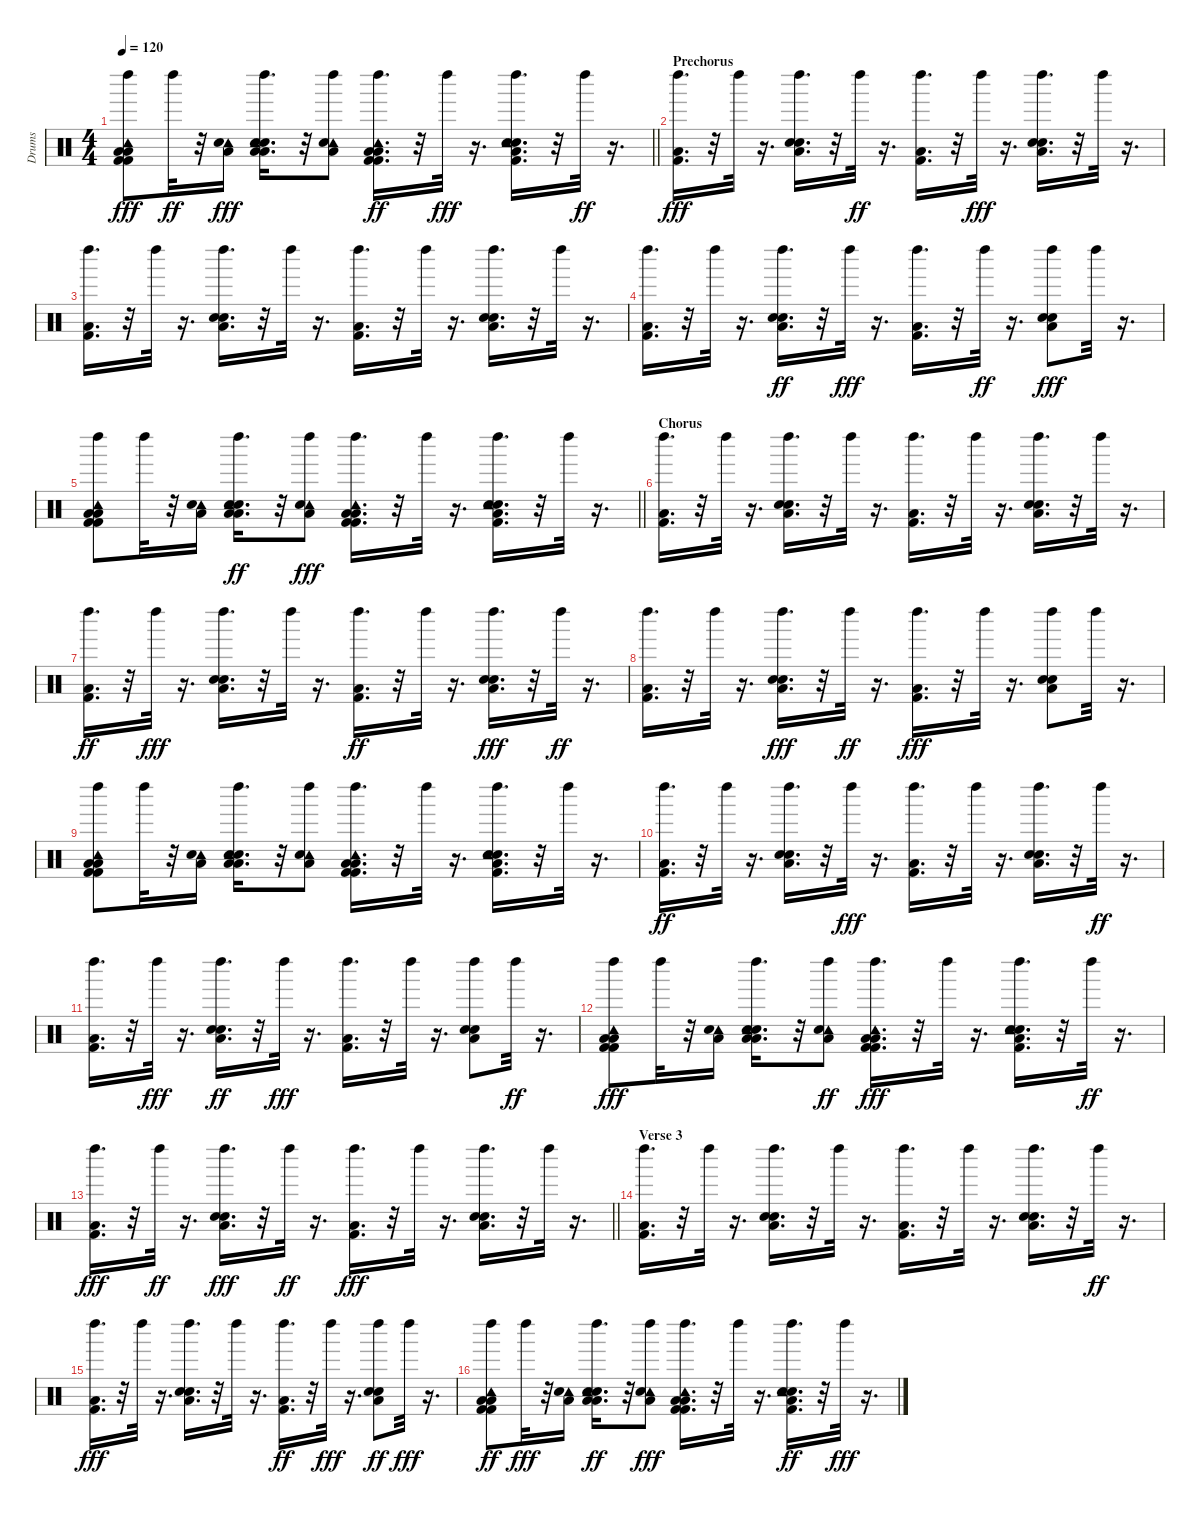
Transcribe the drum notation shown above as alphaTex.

\track ("Drums" "Drums") {instrument percussion}
\staff {score}
\articulation defaults
\ts (4 4)
\tempo 120
\clef neutral
\barLineRight lightlight
\ks c
("Left Maraca (hit)" "Low Floor Tom (hit)" "Kick (hit) 2" "Tambourine (hit)" "Low Floor Tom (hit)" "Kick (hit) 2").8{dy fff} "Left Maraca (hit)".32{dy ff} r.32 ("Tambourine (hit)" "Low Floor Tom (hit)" "Snare (hit) 2").16{dy fff} ("Left Maraca (hit)" "Electric Snare (hit)" "Low Floor Tom (hit)" "Snare (hit) 2" "Tambourine (hit)" "Low Floor Tom (hit)").16{d} r.32 ("Left Maraca (hit)" "Tambourine (hit)" "Low Floor Tom (hit)" "Snare (hit) 2").8 ("Left Maraca (hit)" "Low Floor Tom (hit)" "Kick (hit) 2" "Tambourine (hit)" "Low Floor Tom (hit)" "Kick (hit) 2").16{d dy ff} r.32 "Left Maraca (hit)".32{dy fff} r.16{d} ("Left Maraca (hit)" "Electric Snare (hit)" "Low Floor Tom (hit)" "Snare (hit) 2" "Tambourine (hit)" "Kick (hit) 2").16{d} r.32 "Left Maraca (hit)".32{dy ff} r.16{d} |
\section ("" "Prechorus")
("Left Maraca (hit)" "Low Floor Tom (hit)" "Kick (hit) 2").16{d dy fff} r.32 "Left Maraca (hit)".32 r.16{d} ("Left Maraca (hit)" "Electric Snare (hit)" "Low Floor Tom (hit)" "Snare (hit) 2").16{d} r.32 "Left Maraca (hit)".32{dy ff} r.16{d} ("Left Maraca (hit)" "Low Floor Tom (hit)" "Kick (hit) 2").16{d} r.32 "Left Maraca (hit)".32{dy fff} r.16{d} ("Left Maraca (hit)" "Electric Snare (hit)" "Low Floor Tom (hit)" "Snare (hit) 2").16{d} r.32 "Left Maraca (hit)".32 r.16{d} |
("Left Maraca (hit)" "Low Floor Tom (hit)" "Kick (hit) 2").16{d} r.32 "Left Maraca (hit)".32 r.16{d} ("Left Maraca (hit)" "Electric Snare (hit)" "Low Floor Tom (hit)" "Snare (hit) 2").16{d} r.32 "Left Maraca (hit)".32 r.16{d} ("Left Maraca (hit)" "Low Floor Tom (hit)" "Kick (hit) 2").16{d} r.32 "Left Maraca (hit)".32 r.16{d} ("Left Maraca (hit)" "Electric Snare (hit)" "Low Floor Tom (hit)" "Snare (hit) 2").16{d} r.32 "Left Maraca (hit)".32 r.16{d} |
("Left Maraca (hit)" "Low Floor Tom (hit)" "Kick (hit) 2").16{d} r.32 "Left Maraca (hit)".32 r.16{d} ("Left Maraca (hit)" "Electric Snare (hit)" "Low Floor Tom (hit)" "Snare (hit) 2").16{d dy ff} r.32 "Left Maraca (hit)".32{dy fff} r.16{d} ("Left Maraca (hit)" "Low Floor Tom (hit)" "Kick (hit) 2").16{d} r.32 "Left Maraca (hit)".32{dy ff} r.16{d} ("Left Maraca (hit)" "Electric Snare (hit)" "Low Floor Tom (hit)" "Snare (hit) 2").8{dy fff} "Left Maraca (hit)".32 r.16{d} |
\barLineRight lightlight
("Left Maraca (hit)" "Low Floor Tom (hit)" "Kick (hit) 2" "Tambourine (hit)" "Low Floor Tom (hit)" "Kick (hit) 2").8 "Left Maraca (hit)".32 r.32 ("Tambourine (hit)" "Low Floor Tom (hit)" "Snare (hit) 2").16 ("Left Maraca (hit)" "Electric Snare (hit)" "Low Floor Tom (hit)" "Snare (hit) 2" "Tambourine (hit)" "Low Floor Tom (hit)").16{d dy ff} r.32 ("Left Maraca (hit)" "Tambourine (hit)" "Low Floor Tom (hit)" "Snare (hit) 2").8{dy fff} ("Left Maraca (hit)" "Low Floor Tom (hit)" "Kick (hit) 2" "Tambourine (hit)" "Low Floor Tom (hit)" "Kick (hit) 2").16{d} r.32 "Left Maraca (hit)".32 r.16{d} ("Left Maraca (hit)" "Electric Snare (hit)" "Low Floor Tom (hit)" "Snare (hit) 2" "Tambourine (hit)" "Kick (hit) 2").16{d} r.32 "Left Maraca (hit)".32 r.16{d} |
\section ("" "Chorus")
("Left Maraca (hit)" "Low Floor Tom (hit)" "Kick (hit) 2").16{d} r.32 "Left Maraca (hit)".32 r.16{d} ("Left Maraca (hit)" "Electric Snare (hit)" "Low Floor Tom (hit)" "Snare (hit) 2").16{d} r.32 "Left Maraca (hit)".32 r.16{d} ("Left Maraca (hit)" "Low Floor Tom (hit)" "Kick (hit) 2").16{d} r.32 "Left Maraca (hit)".32 r.16{d} ("Left Maraca (hit)" "Electric Snare (hit)" "Low Floor Tom (hit)" "Snare (hit) 2").16{d} r.32 "Left Maraca (hit)".32 r.16{d} |
("Left Maraca (hit)" "Low Floor Tom (hit)" "Kick (hit) 2").16{d dy ff} r.32 "Left Maraca (hit)".32{dy fff} r.16{d} ("Left Maraca (hit)" "Electric Snare (hit)" "Low Floor Tom (hit)" "Snare (hit) 2").16{d} r.32 "Left Maraca (hit)".32 r.16{d} ("Left Maraca (hit)" "Low Floor Tom (hit)" "Kick (hit) 2").16{d dy ff} r.32 "Left Maraca (hit)".32 r.16{d} ("Left Maraca (hit)" "Electric Snare (hit)" "Low Floor Tom (hit)" "Snare (hit) 2").16{d dy fff} r.32 "Left Maraca (hit)".32{dy ff} r.16{d} |
("Left Maraca (hit)" "Low Floor Tom (hit)" "Kick (hit) 2").16{d} r.32 "Left Maraca (hit)".32 r.16{d} ("Left Maraca (hit)" "Electric Snare (hit)" "Low Floor Tom (hit)" "Snare (hit) 2").16{d dy fff} r.32 "Left Maraca (hit)".32{dy ff} r.16{d} ("Left Maraca (hit)" "Low Floor Tom (hit)" "Kick (hit) 2").16{d dy fff} r.32 "Left Maraca (hit)".32 r.16{d} ("Left Maraca (hit)" "Electric Snare (hit)" "Low Floor Tom (hit)" "Snare (hit) 2").8 "Left Maraca (hit)".32 r.16{d} |
("Left Maraca (hit)" "Low Floor Tom (hit)" "Kick (hit) 2" "Tambourine (hit)" "Low Floor Tom (hit)" "Kick (hit) 2").8 "Left Maraca (hit)".32 r.32 ("Tambourine (hit)" "Low Floor Tom (hit)" "Snare (hit) 2").16 ("Left Maraca (hit)" "Electric Snare (hit)" "Low Floor Tom (hit)" "Snare (hit) 2" "Tambourine (hit)" "Low Floor Tom (hit)").16{d} r.32 ("Left Maraca (hit)" "Tambourine (hit)" "Low Floor Tom (hit)" "Snare (hit) 2").8 ("Left Maraca (hit)" "Low Floor Tom (hit)" "Kick (hit) 2" "Tambourine (hit)" "Low Floor Tom (hit)" "Kick (hit) 2").16{d} r.32 "Left Maraca (hit)".32 r.16{d} ("Left Maraca (hit)" "Electric Snare (hit)" "Low Floor Tom (hit)" "Snare (hit) 2" "Tambourine (hit)" "Kick (hit) 2").16{d} r.32 "Left Maraca (hit)".32 r.16{d} |
("Left Maraca (hit)" "Low Floor Tom (hit)" "Kick (hit) 2").16{d dy ff} r.32 "Left Maraca (hit)".32 r.16{d} ("Left Maraca (hit)" "Electric Snare (hit)" "Low Floor Tom (hit)" "Snare (hit) 2").16{d} r.32 "Left Maraca (hit)".32{dy fff} r.16{d} ("Left Maraca (hit)" "Low Floor Tom (hit)" "Kick (hit) 2").16{d} r.32 "Left Maraca (hit)".32 r.16{d} ("Left Maraca (hit)" "Electric Snare (hit)" "Low Floor Tom (hit)" "Snare (hit) 2").16{d} r.32 "Left Maraca (hit)".32{dy ff} r.16{d} |
("Left Maraca (hit)" "Low Floor Tom (hit)" "Kick (hit) 2").16{d} r.32 "Left Maraca (hit)".32{dy fff} r.16{d} ("Left Maraca (hit)" "Electric Snare (hit)" "Low Floor Tom (hit)" "Snare (hit) 2").16{d dy ff} r.32 "Left Maraca (hit)".32{dy fff} r.16{d} ("Left Maraca (hit)" "Low Floor Tom (hit)" "Kick (hit) 2").16{d} r.32 "Left Maraca (hit)".32 r.16{d} ("Left Maraca (hit)" "Electric Snare (hit)" "Low Floor Tom (hit)" "Snare (hit) 2").8 "Left Maraca (hit)".32{dy ff} r.16{d} |
("Left Maraca (hit)" "Low Floor Tom (hit)" "Kick (hit) 2" "Tambourine (hit)" "Low Floor Tom (hit)" "Kick (hit) 2").8{dy fff} "Left Maraca (hit)".32 r.32 ("Tambourine (hit)" "Low Floor Tom (hit)" "Snare (hit) 2").16 ("Left Maraca (hit)" "Electric Snare (hit)" "Low Floor Tom (hit)" "Snare (hit) 2" "Tambourine (hit)" "Low Floor Tom (hit)").16{d} r.32 ("Left Maraca (hit)" "Tambourine (hit)" "Low Floor Tom (hit)" "Snare (hit) 2").8{dy ff} ("Left Maraca (hit)" "Low Floor Tom (hit)" "Kick (hit) 2" "Tambourine (hit)" "Low Floor Tom (hit)" "Kick (hit) 2").16{d dy fff} r.32 "Left Maraca (hit)".32 r.16{d} ("Left Maraca (hit)" "Electric Snare (hit)" "Low Floor Tom (hit)" "Snare (hit) 2" "Tambourine (hit)" "Kick (hit) 2").16{d} r.32 "Left Maraca (hit)".32{dy ff} r.16{d} |
\barLineRight lightlight
("Left Maraca (hit)" "Low Floor Tom (hit)" "Kick (hit) 2").16{d dy fff} r.32 "Left Maraca (hit)".32{dy ff} r.16{d} ("Left Maraca (hit)" "Electric Snare (hit)" "Low Floor Tom (hit)" "Snare (hit) 2").16{d dy fff} r.32 "Left Maraca (hit)".32{dy ff} r.16{d} ("Left Maraca (hit)" "Low Floor Tom (hit)" "Kick (hit) 2").16{d dy fff} r.32 "Left Maraca (hit)".32 r.16{d} ("Left Maraca (hit)" "Electric Snare (hit)" "Low Floor Tom (hit)" "Snare (hit) 2").16{d} r.32 "Left Maraca (hit)".32 r.16{d} |
\section ("" "Verse 3")
("Left Maraca (hit)" "Low Floor Tom (hit)" "Kick (hit) 2").16{d} r.32 "Left Maraca (hit)".32 r.16{d} ("Left Maraca (hit)" "Electric Snare (hit)" "Low Floor Tom (hit)" "Snare (hit) 2").16{d} r.32 "Left Maraca (hit)".32 r.16{d} ("Left Maraca (hit)" "Low Floor Tom (hit)" "Kick (hit) 2").16{d} r.32 "Left Maraca (hit)".32 r.16{d} ("Left Maraca (hit)" "Electric Snare (hit)" "Low Floor Tom (hit)" "Snare (hit) 2").16{d} r.32 "Left Maraca (hit)".32{dy ff} r.16{d} |
("Left Maraca (hit)" "Low Floor Tom (hit)" "Kick (hit) 2").16{d dy fff} r.32 "Left Maraca (hit)".32 r.16{d} ("Left Maraca (hit)" "Electric Snare (hit)" "Low Floor Tom (hit)" "Snare (hit) 2").16{d} r.32 "Left Maraca (hit)".32 r.16{d} ("Left Maraca (hit)" "Low Floor Tom (hit)" "Kick (hit) 2").16{d dy ff} r.32 "Left Maraca (hit)".32{dy fff} r.16{d} ("Left Maraca (hit)" "Electric Snare (hit)" "Low Floor Tom (hit)" "Snare (hit) 2").8{dy ff} "Left Maraca (hit)".32{dy fff} r.16{d} |
("Left Maraca (hit)" "Low Floor Tom (hit)" "Kick (hit) 2" "Tambourine (hit)" "Low Floor Tom (hit)" "Kick (hit) 2").8{dy ff} "Left Maraca (hit)".32{dy fff} r.32 ("Tambourine (hit)" "Low Floor Tom (hit)" "Snare (hit) 2").16 ("Left Maraca (hit)" "Electric Snare (hit)" "Low Floor Tom (hit)" "Snare (hit) 2" "Tambourine (hit)" "Low Floor Tom (hit)").16{d dy ff} r.32 ("Left Maraca (hit)" "Tambourine (hit)" "Low Floor Tom (hit)" "Snare (hit) 2").8{dy fff} ("Left Maraca (hit)" "Low Floor Tom (hit)" "Kick (hit) 2" "Tambourine (hit)" "Low Floor Tom (hit)" "Kick (hit) 2").16{d} r.32 "Left Maraca (hit)".32 r.16{d} ("Left Maraca (hit)" "Electric Snare (hit)" "Low Floor Tom (hit)" "Snare (hit) 2" "Tambourine (hit)" "Kick (hit) 2").16{d dy ff} r.32 "Left Maraca (hit)".32{dy fff} r.16{d}
